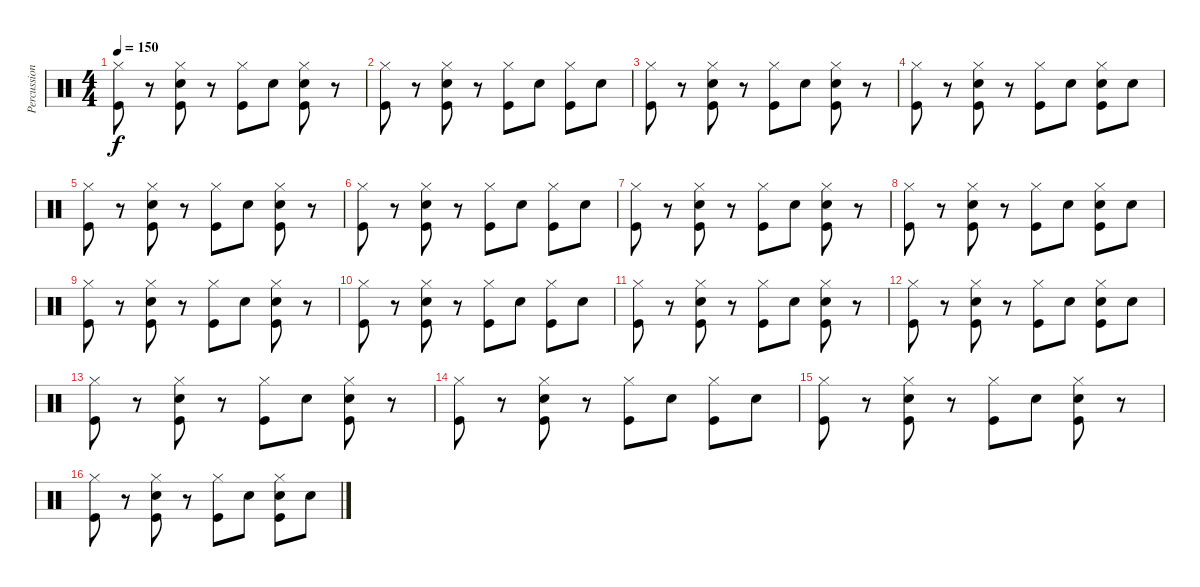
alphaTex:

\track ("Percussion" "Percussion") {instrument percussion}
\staff {score}
\articulation defaults
\ts (4 4)
\tempo 150
\clef neutral
\ks c
("Hi-Hat (closed)" "Kick (hit)").8{dy f} r.8 ("Hi-Hat (closed)" "Snare (hit) 2" "Kick (hit)").8 r.8 ("Hi-Hat (closed)" "Kick (hit)").8 "Snare (hit) 2".8 ("Hi-Hat (closed)" "Snare (hit) 2" "Kick (hit)").8 r.8 |
("Hi-Hat (closed)" "Kick (hit)").8 r.8 ("Hi-Hat (closed)" "Snare (hit) 2" "Kick (hit)").8 r.8 ("Hi-Hat (closed)" "Kick (hit)").8 "Snare (hit) 2".8 ("Hi-Hat (closed)" "Kick (hit)").8 "Snare (hit) 2".8 |
("Hi-Hat (closed)" "Kick (hit)").8 r.8 ("Hi-Hat (closed)" "Snare (hit) 2" "Kick (hit)").8 r.8 ("Hi-Hat (closed)" "Kick (hit)").8 "Snare (hit) 2".8 ("Hi-Hat (closed)" "Snare (hit) 2" "Kick (hit)").8 r.8 |
("Hi-Hat (closed)" "Kick (hit)").8 r.8 ("Hi-Hat (closed)" "Snare (hit) 2" "Kick (hit)").8 r.8 ("Hi-Hat (closed)" "Kick (hit)").8 "Snare (hit) 2".8 ("Hi-Hat (closed)" "Snare (hit) 2" "Kick (hit)").8 "Snare (hit) 2".8 |
("Hi-Hat (closed)" "Kick (hit)").8 r.8 ("Hi-Hat (closed)" "Snare (hit) 2" "Kick (hit)").8 r.8 ("Hi-Hat (closed)" "Kick (hit)").8 "Snare (hit) 2".8 ("Hi-Hat (closed)" "Snare (hit) 2" "Kick (hit)").8 r.8 |
("Hi-Hat (closed)" "Kick (hit)").8 r.8 ("Hi-Hat (closed)" "Snare (hit) 2" "Kick (hit)").8 r.8 ("Hi-Hat (closed)" "Kick (hit)").8 "Snare (hit) 2".8 ("Hi-Hat (closed)" "Kick (hit)").8 "Snare (hit) 2".8 |
("Hi-Hat (closed)" "Kick (hit)").8 r.8 ("Hi-Hat (closed)" "Snare (hit) 2" "Kick (hit)").8 r.8 ("Hi-Hat (closed)" "Kick (hit)").8 "Snare (hit) 2".8 ("Hi-Hat (closed)" "Snare (hit) 2" "Kick (hit)").8 r.8 |
("Hi-Hat (closed)" "Kick (hit)").8 r.8 ("Hi-Hat (closed)" "Snare (hit) 2" "Kick (hit)").8 r.8 ("Hi-Hat (closed)" "Kick (hit)").8 "Snare (hit) 2".8 ("Hi-Hat (closed)" "Snare (hit) 2" "Kick (hit)").8 "Snare (hit) 2".8 |
("Hi-Hat (closed)" "Kick (hit)").8 r.8 ("Hi-Hat (closed)" "Snare (hit) 2" "Kick (hit)").8 r.8 ("Hi-Hat (closed)" "Kick (hit)").8 "Snare (hit) 2".8 ("Hi-Hat (closed)" "Snare (hit) 2" "Kick (hit)").8 r.8 |
("Hi-Hat (closed)" "Kick (hit)").8 r.8 ("Hi-Hat (closed)" "Snare (hit) 2" "Kick (hit)").8 r.8 ("Hi-Hat (closed)" "Kick (hit)").8 "Snare (hit) 2".8 ("Hi-Hat (closed)" "Kick (hit)").8 "Snare (hit) 2".8 |
("Hi-Hat (closed)" "Kick (hit)").8 r.8 ("Hi-Hat (closed)" "Snare (hit) 2" "Kick (hit)").8 r.8 ("Hi-Hat (closed)" "Kick (hit)").8 "Snare (hit) 2".8 ("Hi-Hat (closed)" "Snare (hit) 2" "Kick (hit)").8 r.8 |
("Hi-Hat (closed)" "Kick (hit)").8 r.8 ("Hi-Hat (closed)" "Snare (hit) 2" "Kick (hit)").8 r.8 ("Hi-Hat (closed)" "Kick (hit)").8 "Snare (hit) 2".8 ("Hi-Hat (closed)" "Snare (hit) 2" "Kick (hit)").8 "Snare (hit) 2".8 |
("Hi-Hat (closed)" "Kick (hit)").8 r.8 ("Hi-Hat (closed)" "Snare (hit) 2" "Kick (hit)").8 r.8 ("Hi-Hat (closed)" "Kick (hit)").8 "Snare (hit) 2".8 ("Hi-Hat (closed)" "Snare (hit) 2" "Kick (hit)").8 r.8 |
("Hi-Hat (closed)" "Kick (hit)").8 r.8 ("Hi-Hat (closed)" "Snare (hit) 2" "Kick (hit)").8 r.8 ("Hi-Hat (closed)" "Kick (hit)").8 "Snare (hit) 2".8 ("Hi-Hat (closed)" "Kick (hit)").8 "Snare (hit) 2".8 |
("Hi-Hat (closed)" "Kick (hit)").8 r.8 ("Hi-Hat (closed)" "Snare (hit) 2" "Kick (hit)").8 r.8 ("Hi-Hat (closed)" "Kick (hit)").8 "Snare (hit) 2".8 ("Hi-Hat (closed)" "Snare (hit) 2" "Kick (hit)").8 r.8 |
("Hi-Hat (closed)" "Kick (hit)").8 r.8 ("Hi-Hat (closed)" "Snare (hit) 2" "Kick (hit)").8 r.8 ("Hi-Hat (closed)" "Kick (hit)").8 "Snare (hit) 2".8 ("Hi-Hat (closed)" "Snare (hit) 2" "Kick (hit)").8 "Snare (hit) 2".8
